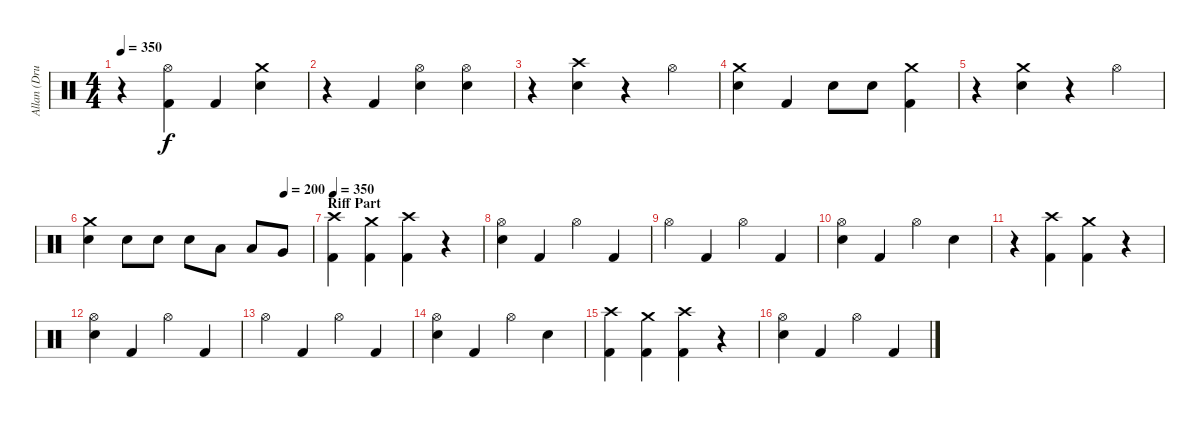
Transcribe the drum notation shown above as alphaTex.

\track ("Allan (Drums)" "Allan (Dru") {instrument percussion}
\staff {score}
\articulation defaults
\ts (4 4)
\tempo 350
\clef neutral
\ks c
r.4{dy f} ("Hi-Hat (open)" "Kick (hit) 2").4 "Kick (hit) 2".4 ("Crash medium (hit)" "Snare (hit) 2").4 |
r.4 "Kick (hit) 2".4 ("Hi-Hat (open)" "Snare (hit) 2").4 ("Hi-Hat (open)" "Snare (hit) 2").4 |
r.4 ("Crash high (hit)" "Snare (hit) 2").4 r.4 "Hi-Hat (open)".4 |
("Crash medium (hit)" "Snare (hit) 2").4 "Kick (hit) 2".4 "Snare (hit) 2".8 "Snare (hit) 2".8 ("Crash medium (hit)" "Kick (hit) 2").4 |
r.4 ("Crash medium (hit)" "Snare (hit) 2").4 r.4 "Hi-Hat (open)".4 |
\tempo (200 0.875)
("Crash medium (hit)" "Snare (hit) 2").4 "Snare (hit) 2".8 "Snare (hit) 2".8 "Snare (hit) 2".8 "Low Tom (hit)".8 "Low Tom (hit)".8 "Very Low Tom (hit)".8 |
\section ("" "Riff Part")
\tempo 350
("Crash high (hit)" "Kick (hit) 2").4 ("Crash medium (hit)" "Kick (hit) 2").4 ("Crash high (hit)" "Kick (hit) 2").4 r.4 |
("Hi-Hat (open)" "Snare (hit) 2").4 "Kick (hit) 2".4 "Hi-Hat (open)".4 "Kick (hit) 2".4 |
"Hi-Hat (open)".4 "Kick (hit) 2".4 "Hi-Hat (open)".4 "Kick (hit) 2".4 |
("Hi-Hat (open)" "Snare (hit) 2").4 "Kick (hit) 2".4 "Hi-Hat (open)".4 "Snare (hit) 2".4 |
r.4 ("Crash high (hit)" "Kick (hit) 2").4 ("Crash medium (hit)" "Kick (hit) 2").4 r.4 |
("Hi-Hat (open)" "Snare (hit) 2").4 "Kick (hit) 2".4 "Hi-Hat (open)".4 "Kick (hit) 2".4 |
"Hi-Hat (open)".4 "Kick (hit) 2".4 "Hi-Hat (open)".4 "Kick (hit) 2".4 |
("Hi-Hat (open)" "Snare (hit) 2").4 "Kick (hit) 2".4 "Hi-Hat (open)".4 "Snare (hit) 2".4 |
("Crash high (hit)" "Kick (hit) 2").4 ("Crash medium (hit)" "Kick (hit) 2").4 ("Crash high (hit)" "Kick (hit) 2").4 r.4 |
("Hi-Hat (open)" "Snare (hit) 2").4 "Kick (hit) 2".4 "Hi-Hat (open)".4 "Kick (hit) 2".4
